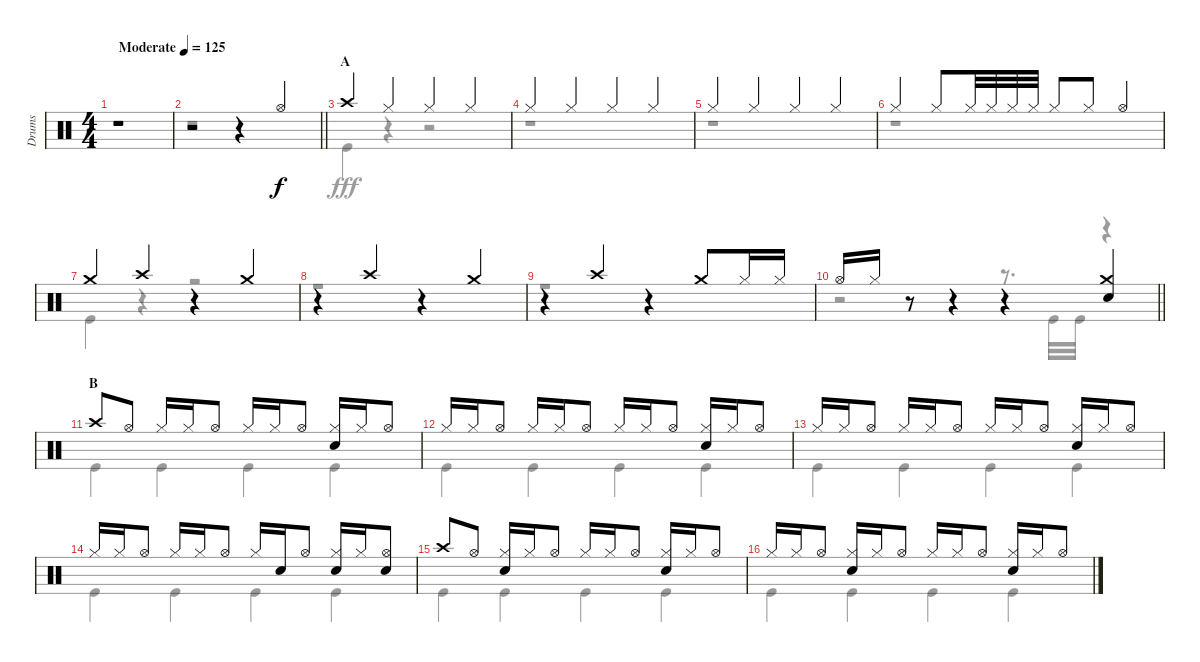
\track ("Drums" "Drums") {instrument percussion}
\staff {score}
\articulation defaults
\voice
\ts (4 4)
\tempo (125 "Moderate")
\clef neutral
\ks c
r.1{dy f} |
\barLineRight lightlight
r.2 r.4 "Hi-Hat (open)".4 |
\section ("" "A")
"Crash high (hit)".4 "Hi-Hat (closed)".4 "Hi-Hat (closed)".4 "Hi-Hat (closed)".4 |
"Hi-Hat (closed)".4 "Hi-Hat (closed)".4 "Hi-Hat (closed)".4 "Hi-Hat (closed)".4 |
"Hi-Hat (closed)".4 "Hi-Hat (closed)".4 "Hi-Hat (closed)".4 "Hi-Hat (closed)".4 |
"Hi-Hat (closed)".4 "Hi-Hat (closed)".8 "Hi-Hat (closed)".32 "Hi-Hat (closed)".32 "Hi-Hat (closed)".32 "Hi-Hat (closed)".32 "Hi-Hat (closed)".8 "Hi-Hat (closed)".8 "Hi-Hat (open)".4 |
"Crash medium (hit)".4 "Crash high (hit)".4 r.4 "Crash medium (hit)".4 |
r.4 "Crash high (hit)".4 r.4 "Crash medium (hit)".4 |
r.4 "Crash high (hit)".4 r.4 "Crash medium (hit)".8 "Hi-Hat (closed)".16 "Hi-Hat (closed)".16 |
\barLineRight lightlight "Hi-Hat (open)".16 "Hi-Hat (closed)".16
r.8 r.4 r.4 ("Crash medium (hit)" "Snare (hit) 2").4 |
\section ("" "B")
"Crash high (hit)".8 "Hi-Hat (open)".8 "Hi-Hat (closed)".16 "Hi-Hat (closed)".16 "Hi-Hat (open)".8 "Hi-Hat (closed)".16 "Hi-Hat (closed)".16 "Hi-Hat (open)".8 ("Hi-Hat (closed)" "Snare (hit) 2").16 "Hi-Hat (closed)".16 "Hi-Hat (open)".8 |
"Hi-Hat (closed)".16 "Hi-Hat (closed)".16 "Hi-Hat (open)".8 "Hi-Hat (closed)".16 "Hi-Hat (closed)".16 "Hi-Hat (open)".8 "Hi-Hat (closed)".16 "Hi-Hat (closed)".16 "Hi-Hat (open)".8 ("Hi-Hat (closed)" "Snare (hit) 2").16 "Hi-Hat (closed)".16 "Hi-Hat (open)".8 |
"Hi-Hat (closed)".16 "Hi-Hat (closed)".16 "Hi-Hat (open)".8 "Hi-Hat (closed)".16 "Hi-Hat (closed)".16 "Hi-Hat (open)".8 "Hi-Hat (closed)".16 "Hi-Hat (closed)".16 "Hi-Hat (open)".8 ("Hi-Hat (closed)" "Snare (hit) 2").16 "Hi-Hat (closed)".16 "Hi-Hat (open)".8 |
"Hi-Hat (closed)".16 "Hi-Hat (closed)".16 "Hi-Hat (open)".8 "Hi-Hat (closed)".16 "Hi-Hat (closed)".16 "Hi-Hat (open)".8 "Hi-Hat (closed)".16 "Snare (hit) 2".16 "Hi-Hat (open)".8 ("Hi-Hat (closed)" "Snare (hit) 2").16 "Hi-Hat (closed)".16 ("Hi-Hat (open)" "Snare (hit) 2").8 |
"Crash high (hit)".8 "Hi-Hat (open)".8 ("Hi-Hat (closed)" "Snare (hit) 2").16 "Hi-Hat (closed)".16 "Hi-Hat (open)".8 "Hi-Hat (closed)".16 "Hi-Hat (closed)".16 "Hi-Hat (open)".8 ("Hi-Hat (closed)" "Snare (hit) 2").16 "Hi-Hat (closed)".16 "Hi-Hat (open)".8 |
"Hi-Hat (closed)".16 "Hi-Hat (closed)".16 "Hi-Hat (open)".8 ("Hi-Hat (closed)" "Snare (hit) 2").16 "Hi-Hat (closed)".16 "Hi-Hat (open)".8 "Hi-Hat (closed)".16 "Hi-Hat (closed)".16 "Hi-Hat (open)".8 ("Hi-Hat (closed)" "Snare (hit) 2").16 "Hi-Hat (closed)".16 "Hi-Hat (open)".8
\voice
\clef neutral
\ottava regular
\simile none
\ks c
r.1{dy fff} |
\barLineRight lightlight
r.1 |
"Kick (hit)".4 r.4 r.2 |
r.1 |
r.1 |
r.1 |
"Kick (hit)".4 r.4 r.2 |
r.1 |
r.1 |
\barLineRight lightlight
r.2 r.8{d} "Kick (hit)".32 "Kick (hit)".32 r.4 |
"Kick (hit)".4 "Kick (hit)".4 "Kick (hit)".4 "Kick (hit)".4 |
"Kick (hit)".4 "Kick (hit)".4 "Kick (hit)".4 "Kick (hit)".4 |
"Kick (hit)".4 "Kick (hit)".4 "Kick (hit)".4 "Kick (hit)".4 |
"Kick (hit)".4 "Kick (hit)".4 "Kick (hit)".4 "Kick (hit)".4 |
"Kick (hit)".4 "Kick (hit)".4 "Kick (hit)".4 "Kick (hit)".4 |
"Kick (hit)".4 "Kick (hit)".4 "Kick (hit)".4 "Kick (hit)".4
